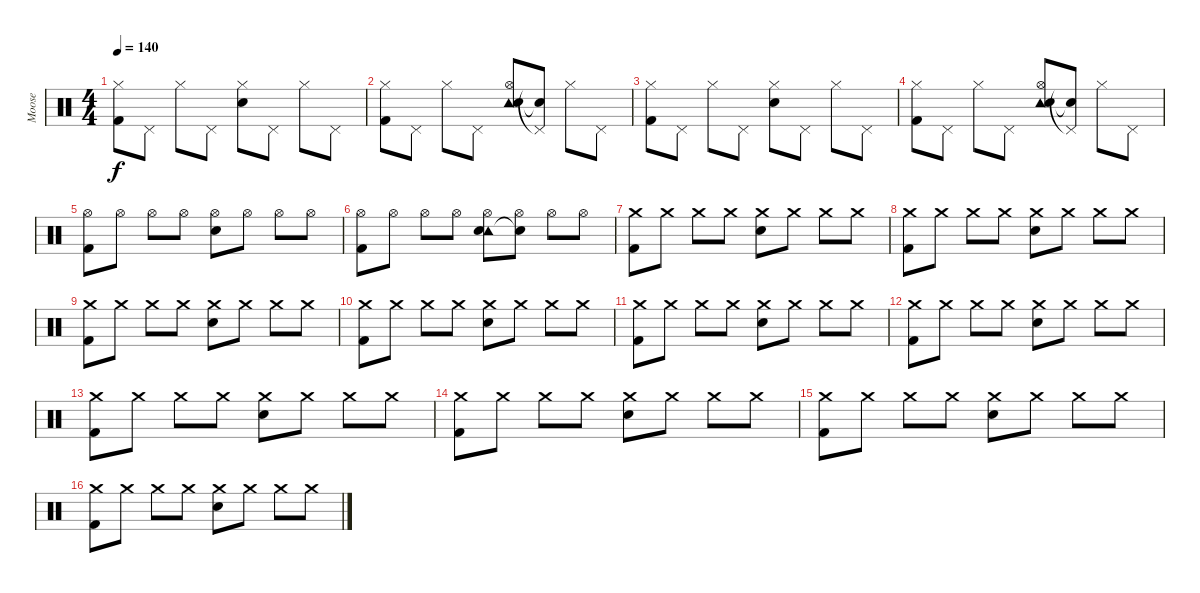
\track ("Moose" "Moose") {instrument percussion}
\staff {score}
\articulation defaults
\ts (4 4)
\tempo 140
\clef neutral
\ks c
("Hi-Hat (closed)" "Kick (hit) 2").8{dy f} "Pedal Hi-Hat (hit)".8 "Hi-Hat (closed)".8 "Pedal Hi-Hat (hit)".8 ("Hi-Hat (closed)" "Snare (hit) 2").8 "Pedal Hi-Hat (hit)".8 "Hi-Hat (closed)".8 "Pedal Hi-Hat (hit)".8 |
("Hi-Hat (closed)" "Kick (hit) 2").8 "Pedal Hi-Hat (hit)".8 "Hi-Hat (closed)".8 "Pedal Hi-Hat (hit)".8 ("Hi-Hat (open)" "Tambourine (hit)" "Snare (hit) 2").8 ("Pedal Hi-Hat (hit)"{t} "Snare (hit)"{t}).8 "Hi-Hat (closed)".8 "Pedal Hi-Hat (hit)".8 |
("Hi-Hat (closed)" "Kick (hit) 2").8 "Pedal Hi-Hat (hit)".8 "Hi-Hat (closed)".8 "Pedal Hi-Hat (hit)".8 ("Hi-Hat (closed)" "Snare (hit) 2").8 "Pedal Hi-Hat (hit)".8 "Hi-Hat (closed)".8 "Pedal Hi-Hat (hit)".8 |
("Hi-Hat (closed)" "Kick (hit) 2").8 "Pedal Hi-Hat (hit)".8 "Hi-Hat (closed)".8 "Pedal Hi-Hat (hit)".8 ("Hi-Hat (open)" "Tambourine (hit)" "Snare (hit) 2").8 ("Pedal Hi-Hat (hit)"{t} "Snare (hit)"{t}).8 "Hi-Hat (closed)".8 "Pedal Hi-Hat (hit)".8 |
("Hi-Hat (open)" "Kick (hit) 2").8 "Hi-Hat (open)".8 "Hi-Hat (open)".8 "Hi-Hat (open)".8 ("Hi-Hat (open)" "Snare (hit) 2").8 "Hi-Hat (open)".8 "Hi-Hat (open)".8 "Hi-Hat (open)".8 |
("Hi-Hat (open)" "Kick (hit) 2").8 "Hi-Hat (open)".8 "Hi-Hat (open)".8 "Hi-Hat (open)".8 ("Hi-Hat (open)" "Tambourine (hit)" "Snare (hit) 2").8 ("Hi-Hat (open)" "Snare (hit)"{t}).8 "Hi-Hat (open)".8 "Hi-Hat (open)".8 |
("Crash medium (hit)" "Kick (hit) 2").8 "Crash medium (hit)".8 "Crash medium (hit)".8 "Crash medium (hit)".8 ("Crash medium (hit)" "Snare (hit) 2").8 "Crash medium (hit)".8 "Crash medium (hit)".8 "Crash medium (hit)".8 |
("Crash medium (hit)" "Kick (hit) 2").8 "Crash medium (hit)".8 "Crash medium (hit)".8 "Crash medium (hit)".8 ("Crash medium (hit)" "Snare (hit) 2").8 "Crash medium (hit)".8 "Crash medium (hit)".8 "Crash medium (hit)".8 |
("Crash medium (hit)" "Kick (hit) 2").8 "Crash medium (hit)".8 "Crash medium (hit)".8 "Crash medium (hit)".8 ("Crash medium (hit)" "Snare (hit) 2").8 "Crash medium (hit)".8 "Crash medium (hit)".8 "Crash medium (hit)".8 |
("Crash medium (hit)" "Kick (hit) 2").8 "Crash medium (hit)".8 "Crash medium (hit)".8 "Crash medium (hit)".8 ("Crash medium (hit)" "Snare (hit) 2").8 "Crash medium (hit)".8 "Crash medium (hit)".8 "Crash medium (hit)".8 |
("Crash medium (hit)" "Kick (hit) 2").8 "Crash medium (hit)".8 "Crash medium (hit)".8 "Crash medium (hit)".8 ("Crash medium (hit)" "Snare (hit) 2").8 "Crash medium (hit)".8 "Crash medium (hit)".8 "Crash medium (hit)".8 |
("Crash medium (hit)" "Kick (hit) 2").8 "Crash medium (hit)".8 "Crash medium (hit)".8 "Crash medium (hit)".8 ("Crash medium (hit)" "Snare (hit) 2").8 "Crash medium (hit)".8 "Crash medium (hit)".8 "Crash medium (hit)".8 |
("Crash medium (hit)" "Kick (hit) 2").8 "Crash medium (hit)".8 "Crash medium (hit)".8 "Crash medium (hit)".8 ("Crash medium (hit)" "Snare (hit) 2").8 "Crash medium (hit)".8 "Crash medium (hit)".8 "Crash medium (hit)".8 |
("Crash medium (hit)" "Kick (hit) 2").8 "Crash medium (hit)".8 "Crash medium (hit)".8 "Crash medium (hit)".8 ("Crash medium (hit)" "Snare (hit) 2").8 "Crash medium (hit)".8 "Crash medium (hit)".8 "Crash medium (hit)".8 |
("Crash medium (hit)" "Kick (hit) 2").8 "Crash medium (hit)".8 "Crash medium (hit)".8 "Crash medium (hit)".8 ("Crash medium (hit)" "Snare (hit) 2").8 "Crash medium (hit)".8 "Crash medium (hit)".8 "Crash medium (hit)".8 |
("Crash medium (hit)" "Kick (hit) 2").8 "Crash medium (hit)".8 "Crash medium (hit)".8 "Crash medium (hit)".8 ("Crash medium (hit)" "Snare (hit) 2").8 "Crash medium (hit)".8 "Crash medium (hit)".8 "Crash medium (hit)".8
